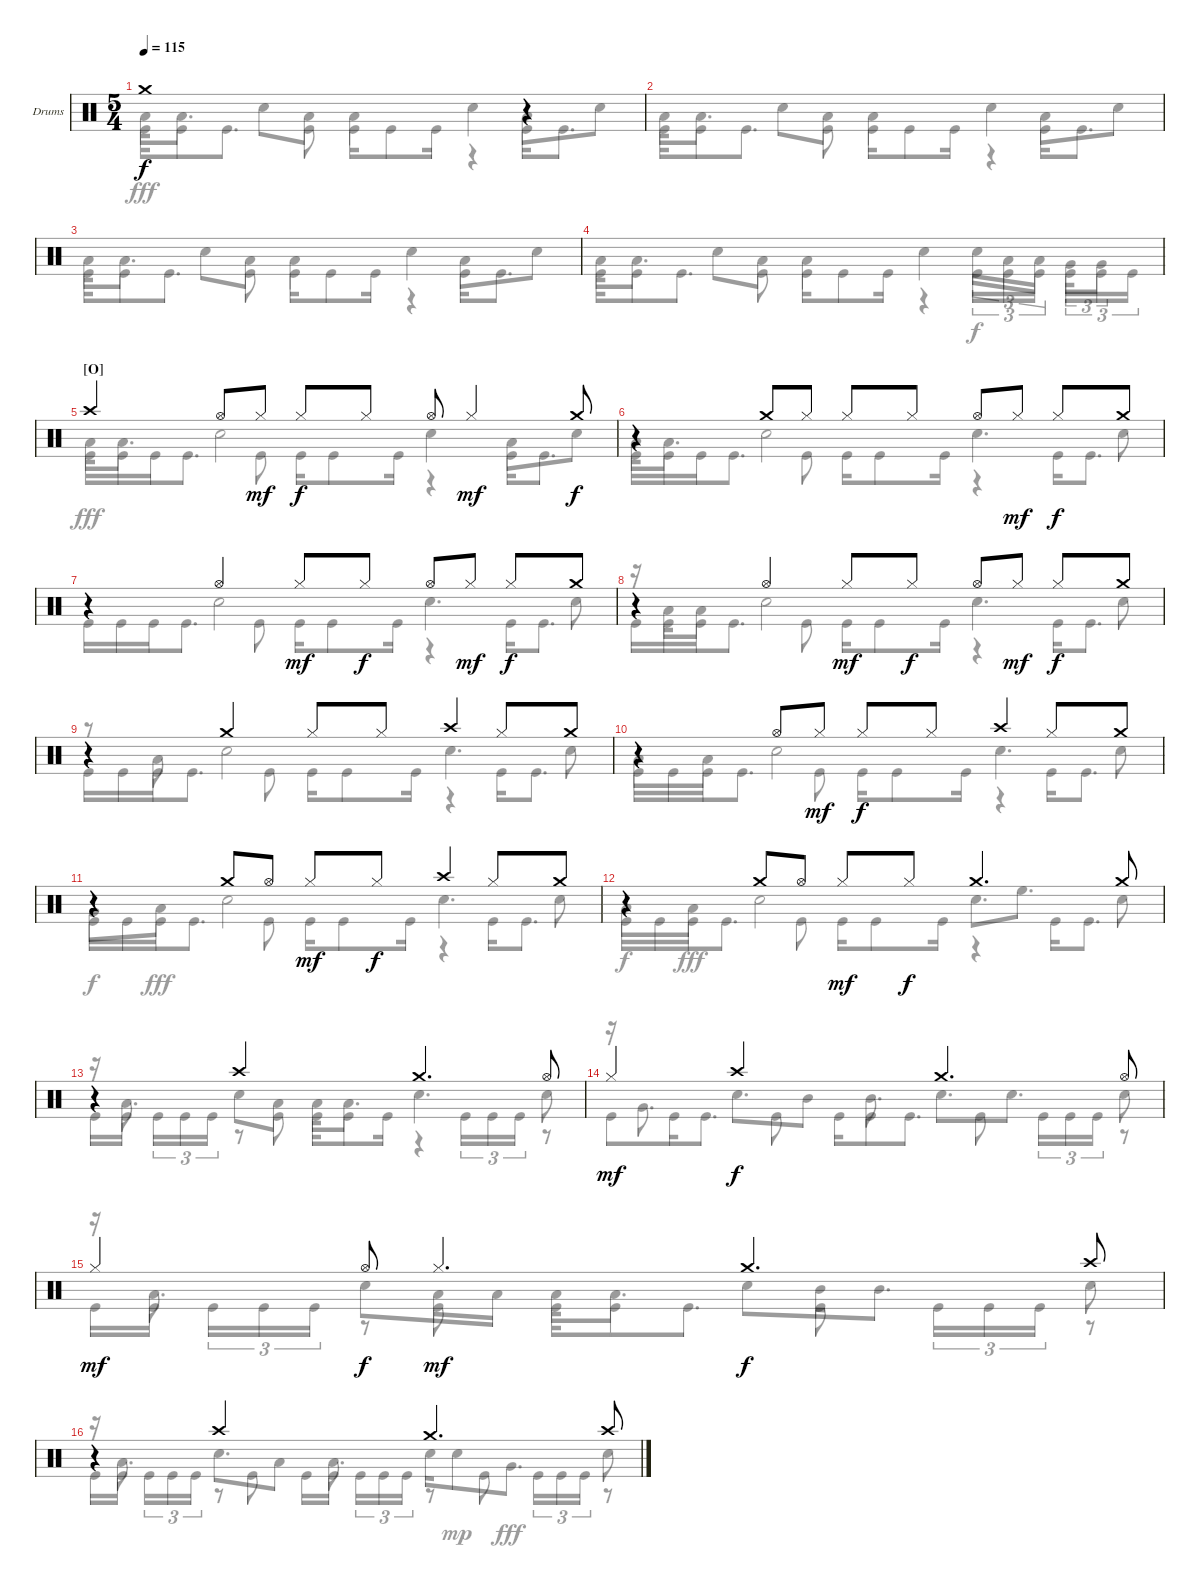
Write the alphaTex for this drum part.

\defaultSystemsLayout 4
\bracketExtendMode groupsimilarinstruments
\firstSystemTrackNameOrientation horizontal
\otherSystemsTrackNameOrientation horizontal
\track ("Drumkit" "Drums") {instrument percussion}
\staff {score}
\articulation defaults
\voice
\ts (5 4)
\tempo 115
\clef neutral
\ks c "Crash medium (hit)".1{dy f}
r.4 |
|
|
|
\section ("O" "")
"Crash high (hit)".4 "Hi-Hat (open)".8 "Hi-Hat (closed)".8{dy mf} "Hi-Hat (closed)".8{dy f} "Hi-Hat (closed)".8 "Hi-Hat (open)".8 "Hi-Hat (closed)".4{dy mf} "Crash medium (hit)".8{dy f} |
r.4 "Crash medium (hit)".8 "Hi-Hat (closed)".8 "Hi-Hat (closed)".8 "Hi-Hat (closed)".8 "Hi-Hat (open)".8 "Hi-Hat (closed)".8{dy mf} "Hi-Hat (closed)".8{dy f} "Crash medium (hit)".8 |
r.4 "Hi-Hat (open)".4 "Hi-Hat (closed)".8{dy mf} "Hi-Hat (closed)".8{dy f} "Hi-Hat (open)".8 "Hi-Hat (closed)".8{dy mf} "Hi-Hat (closed)".8{dy f} "Crash medium (hit)".8 |
r.4 "Hi-Hat (open)".4 "Hi-Hat (closed)".8{dy mf} "Hi-Hat (closed)".8{dy f} "Hi-Hat (open)".8 "Hi-Hat (closed)".8{dy mf} "Hi-Hat (closed)".8{dy f} "Crash medium (hit)".8 |
r.4 "Crash medium (hit)".4 "Hi-Hat (closed)".8 "Hi-Hat (closed)".8 "Crash high (hit)".4 "Hi-Hat (closed)".8 "Crash medium (hit)".8 |
r.4 "Hi-Hat (open)".8 "Hi-Hat (closed)".8{dy mf} "Hi-Hat (closed)".8{dy f} "Hi-Hat (closed)".8 "Crash high (hit)".4 "Hi-Hat (closed)".8 "Crash medium (hit)".8 |
r.4 "Crash medium (hit)".8 "Hi-Hat (open)".8 "Hi-Hat (closed)".8{dy mf} "Hi-Hat (closed)".8{dy f} "Crash high (hit)".4 "Hi-Hat (closed)".8 "Crash medium (hit)".8 |
r.4 "Crash medium (hit)".8 "Hi-Hat (open)".8 "Hi-Hat (closed)".8{dy mf} "Hi-Hat (closed)".8{dy f} "Crash medium (hit)".4{d} "Crash medium (hit)".8 |
r.4 "Crash high (hit)".2 "Crash medium (hit)".4{d} "Hi-Hat (open)".8 |
"Hi-Hat (closed)".4{dy mf} "Crash high (hit)".2{dy f} "Crash medium (hit)".4{d} "Hi-Hat (open)".8 |
"Hi-Hat (closed)".4{dy mf} "Hi-Hat (open)".8{dy f} "Hi-Hat (closed)".4{d dy mf} "Crash medium (hit)".4{d dy f} "Crash high (hit)".8 |
r.4 "Crash high (hit)".2 "Crash medium (hit)".4{d} "Crash high (hit)".8
\voice
\clef neutral
\ottava regular
\simile none
\ks c "Low Tom (hit)".16{dy fff} "Low Tom (hit)".8{d} "Snare (hit) 2".8 "Low Tom (hit)".8 "Low Tom (hit)".4 "Snare (hit) 2".4 "Low Tom (hit)".8 "Snare (hit) 2".8
|
"Low Tom (hit)".16 "Low Tom (hit)".8{d} "Snare (hit) 2".8 "Low Tom (hit)".8 "Low Tom (hit)".4 "Snare (hit) 2".4 "Low Tom (hit)".8 "Snare (hit) 2".8 |
"Low Tom (hit)".16 "Low Tom (hit)".8{d} "Snare (hit) 2".8 "Low Tom (hit)".8 "Low Tom (hit)".4 "Snare (hit) 2".4 "Low Tom (hit)".8 "Snare (hit) 2".8 |
"Low Tom (hit)".16 "Low Tom (hit)".8{d} "Snare (hit) 2".8 "Low Tom (hit)".8 "Low Tom (hit)".4 "Snare (hit) 2".4 "Snare (hit) 2".16{tu (3 2) dy f} "Low Tom (hit)".16{tu (3 2)} "Low Tom (hit)".16{tu (3 2)} "Very Low Tom (hit)".16{tu (3 2)} "Very Low Tom (hit)".8{tu (3 2)} |
"Low Tom (hit)".16{dy fff} "Low Tom (hit)".8{d} "Snare (hit) 2".2 "Snare (hit) 2".4 "Low Tom (hit)".8 "Snare (hit) 2".8 |
"Low Tom (hit)".16 "Low Tom (hit)".8{d} "Snare (hit) 2".2 "Snare (hit) 2".4{d} "Snare (hit) 2".8 |
r.4 "Snare (hit) 2".2 "Snare (hit) 2".4{d} "Snare (hit) 2".8 |
r.16 "Low Tom (hit)".16 "Low Tom (hit)".8 "Snare (hit) 2".2 "Snare (hit) 2".4{d} "Snare (hit) 2".8 |
r.8 "Low Tom (hit)".8 "Snare (hit) 2".2 "Snare (hit) 2".4{d} "Snare (hit) 2".8 |
"Low Tom (hit)".8 "Low Tom (hit)".8 "Snare (hit) 2".2 "Snare (hit) 2".4{d} "Snare (hit) 2".8 |
"Very Low Tom (hit)".8{dy f} "Low Tom (hit)".8{dy fff} "Snare (hit) 2".2 "Snare (hit) 2".4{d} "Snare (hit) 2".8 |
"Low Tom (hit)".8{dy f} "Low Tom (hit)".8{dy fff} "Snare (hit) 2".2 "Snare (hit) 2".8{d} "High Floor Tom (hit)".8{d} "Snare (hit) 2".8 |
r.16 "Low Tom (hit)".8{d} "Snare (hit) 2".8 "Low Tom (hit)".8 "Low Tom (hit)".16 "Low Tom (hit)".8{d} "Snare (hit) 2".4{d} "Snare (hit) 2".8 |
r.16 "Very Low Tom (hit)".8{d} "Snare (hit) 2".8{d} "Mid Tom (hit)".8 "Mid Tom (hit)".8{d} "Snare (hit) 2".8{d} "Snare (hit) 2".8{d} "Snare (hit) 2".8 |
r.16 "Low Tom (hit)".8{d} "Snare (hit) 2".8 "Low Tom (hit)".16 "Low Tom (hit)".16 "Low Tom (hit)".16 "Low Tom (hit)".8{d} "Snare (hit) 2".8 "Mid Tom (hit)".16 "Mid Tom (hit)".8{d} "Snare (hit) 2".8 |
r.16 "Low Tom (hit)".8{d} "Snare (hit) 2".8{d} "Low Tom (hit)".8 "Low Tom (hit)".8{d} "Snare (hit) 2".16 "Snare (hit) 2".8{dy mp} "Very Low Tom (hit)".8{d dy fff} "Snare (hit) 2".8
\voice
\clef neutral
\ottava regular
\simile none
\ks c "Kick (hit)".16{dy fff} "Kick (hit)".8 "Kick (hit)".8{d} "Kick (hit)".8 "Kick (hit)".16 "Kick (hit)".8 "Kick (hit)".16
r.4 "Kick (hit)".16 "Kick (hit)".8{d} |
"Kick (hit)".16 "Kick (hit)".8 "Kick (hit)".8{d} "Kick (hit)".8 "Kick (hit)".16 "Kick (hit)".8 "Kick (hit)".16 r.4 "Kick (hit)".16 "Kick (hit)".8{d} |
"Kick (hit)".16 "Kick (hit)".8 "Kick (hit)".8{d} "Kick (hit)".8 "Kick (hit)".16 "Kick (hit)".8 "Kick (hit)".16 r.4 "Kick (hit)".16 "Kick (hit)".8{d} |
"Kick (hit)".16 "Kick (hit)".8 "Kick (hit)".8{d} "Kick (hit)".8 "Kick (hit)".16 "Kick (hit)".8 "Kick (hit)".16 r.4 "Kick (hit)".16{tu (3 2)} "Kick (hit)".16{tu (3 2)} "Kick (hit)".16{tu (3 2)} "Kick (hit)".16{tu (3 2)} "Kick (hit)".16{tu (3 2)} "Kick (hit)".16{tu (3 2)} |
"Kick (hit)".16 "Kick (hit)".16 "Kick (hit)".16 "Kick (hit)".8{d} "Kick (hit)".8 "Kick (hit)".16 "Kick (hit)".8 "Kick (hit)".16 r.4 "Kick (hit)".16 "Kick (hit)".8{d} |
"Kick (hit)".16 "Kick (hit)".16 "Kick (hit)".16 "Kick (hit)".8{d} "Kick (hit)".8 "Kick (hit)".16 "Kick (hit)".8 "Kick (hit)".16 r.4 "Kick (hit)".16 "Kick (hit)".8{d} |
"Kick (hit)".16 "Kick (hit)".16 "Kick (hit)".16 "Kick (hit)".8{d} "Kick (hit)".8 "Kick (hit)".16 "Kick (hit)".8 "Kick (hit)".16 r.4 "Kick (hit)".16 "Kick (hit)".8{d} |
"Kick (hit)".16 "Kick (hit)".16 "Kick (hit)".16 "Kick (hit)".8{d} "Kick (hit)".8 "Kick (hit)".16 "Kick (hit)".8 "Kick (hit)".16 r.4 "Kick (hit)".16 "Kick (hit)".8{d} |
"Kick (hit)".16 "Kick (hit)".16 "Kick (hit)".16 "Kick (hit)".8{d} "Kick (hit)".8 "Kick (hit)".16 "Kick (hit)".8 "Kick (hit)".16 r.4 "Kick (hit)".16 "Kick (hit)".8{d} |
"Kick (hit)".16 "Kick (hit)".16 "Kick (hit)".16 "Kick (hit)".8{d} "Kick (hit)".8 "Kick (hit)".16 "Kick (hit)".8 "Kick (hit)".16 r.4 "Kick (hit)".16 "Kick (hit)".8{d} |
"Kick (hit)".16 "Kick (hit)".16 "Kick (hit)".16 "Kick (hit)".8{d} "Kick (hit)".8 "Kick (hit)".16 "Kick (hit)".8 "Kick (hit)".16 r.4 "Kick (hit)".16 "Kick (hit)".8{d} |
"Kick (hit)".16 "Kick (hit)".16 "Kick (hit)".16 "Kick (hit)".8{d} "Kick (hit)".8 "Kick (hit)".16 "Kick (hit)".8 "Kick (hit)".16 r.4 "Kick (hit)".16 "Kick (hit)".8{d} |
"Kick (hit)".16 "Kick (hit)".16 "Kick (hit)".16{tu (3 2)} "Kick (hit)".16{tu (3 2)} "Kick (hit)".16{tu (3 2)} r.8 "Kick (hit)".8 "Kick (hit)".16 "Kick (hit)".8 "Kick (hit)".16 r.4 "Kick (hit)".16{tu (3 2)} "Kick (hit)".16{tu (3 2)} "Kick (hit)".16{tu (3 2)} r.8 |
"Kick (hit)".8 "Kick (hit)".16 "Kick (hit)".8{d} "Kick (hit)".8 "Kick (hit)".16 "Kick (hit)".8 "Kick (hit)".8{d} "Kick (hit)".8 "Kick (hit)".16{tu (3 2)} "Kick (hit)".16{tu (3 2)} "Kick (hit)".16{tu (3 2)} r.8 |
"Kick (hit)".16 "Kick (hit)".16 "Kick (hit)".16{tu (3 2)} "Kick (hit)".16{tu (3 2)} "Kick (hit)".16{tu (3 2)} r.8 "Kick (hit)".8 "Kick (hit)".16 "Kick (hit)".8 "Kick (hit)".8{d} "Kick (hit)".8 "Kick (hit)".16{tu (3 2)} "Kick (hit)".16{tu (3 2)} "Kick (hit)".16{tu (3 2)} r.8 |
"Kick (hit)".16 "Kick (hit)".16 "Kick (hit)".16{tu (3 2)} "Kick (hit)".16{tu (3 2)} "Kick (hit)".16{tu (3 2)} r.8 "Kick (hit)".8 "Kick (hit)".16 "Kick (hit)".16 "Kick (hit)".16{tu (3 2)} "Kick (hit)".16{tu (3 2)} "Kick (hit)".16{tu (3 2)} r.8 "Kick (hit)".8 "Kick (hit)".16{tu (3 2)} "Kick (hit)".16{tu (3 2)} "Kick (hit)".16{tu (3 2)} r.8
